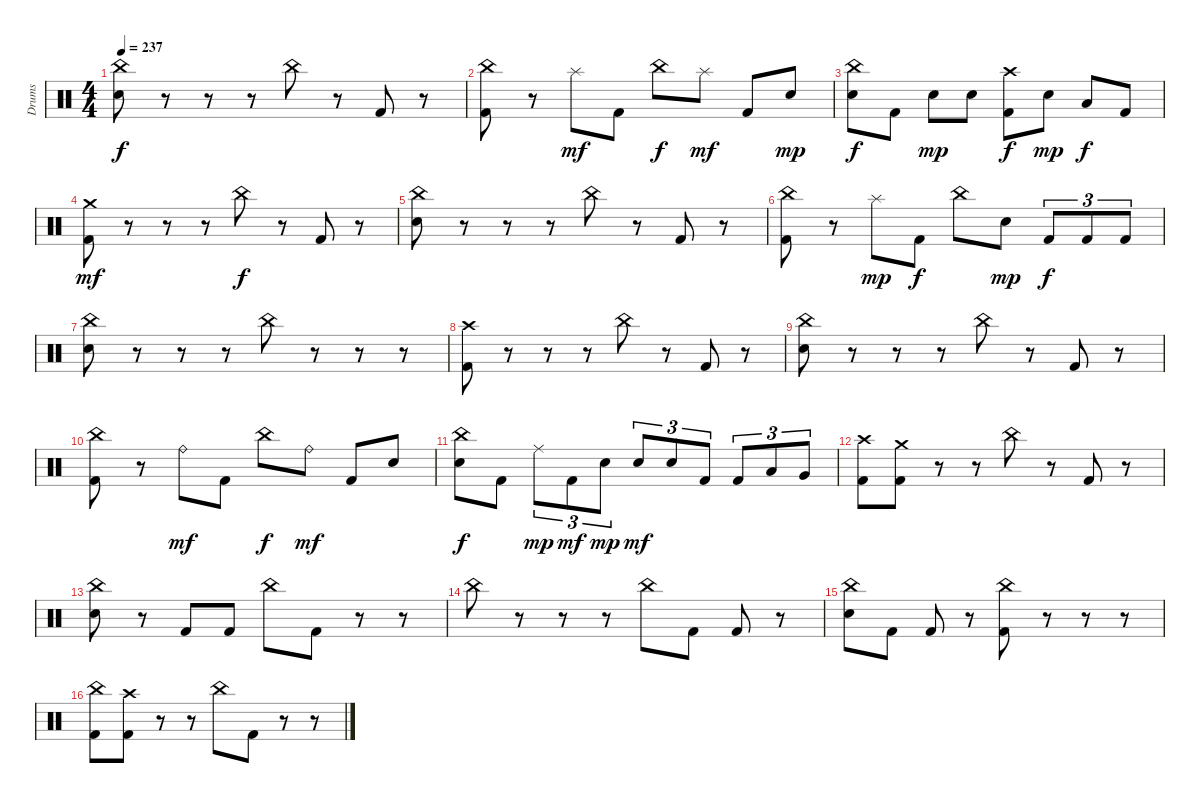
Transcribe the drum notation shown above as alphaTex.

\track ("Drums" "Drums") {instrument percussion}
\staff {score}
\articulation defaults
\ts (4 4)
\tempo 237
\clef neutral
\ks c
("China (hit)" "Electric Snare (hit)").8{dy f} r.8 r.8 r.8 "China (hit)".8 r.8 "Kick (hit) 2".8 r.8 |
("China (hit)" "Kick (hit) 2").8 r.8 "Splash (hit)".8{dy mf} "Kick (hit) 2".8 "China (hit)".8{dy f} "Splash (hit)".8{dy mf} "Kick (hit) 2".8 "Electric Snare (hit)".8{dy mp} |
("China (hit)" "Electric Snare (hit)").8{dy f} "Kick (hit) 2".8 "Electric Snare (hit)".8{dy mp} "Electric Snare (hit)".8 ("Crash high (hit)" "Kick (hit) 2").8{dy f} "Electric Snare (hit)".8{dy mp} "Low Tom (hit)".8{dy f} "Kick (hit) 2".8 |
("Crash medium (hit)" "Kick (hit) 2").8{dy mf} r.8 r.8 r.8 "China (hit)".8{dy f} r.8 "Kick (hit) 2".8 r.8 |
("China (hit)" "Electric Snare (hit)").8 r.8 r.8 r.8 "China (hit)".8 r.8 "Kick (hit) 2".8 r.8 |
("China (hit)" "Kick (hit) 2").8 r.8 "Splash (hit)".8{dy mp} "Kick (hit) 2".8{dy f} "China (hit)".8 "Electric Snare (hit)".8{dy mp} "Kick (hit) 2".8{tu (3 2) dy f} "Kick (hit) 2".8{tu (3 2)} "Kick (hit) 2".8{tu (3 2)} |
("China (hit)" "Electric Snare (hit)").8 r.8 r.8 r.8 "China (hit)".8 r.8 r.8 r.8 |
("Crash high (hit)" "Kick (hit) 2").8 r.8 r.8 r.8 "China (hit)".8 r.8 "Kick (hit) 2".8 r.8 |
("China (hit)" "Electric Snare (hit)").8 r.8 r.8 r.8 "China (hit)".8 r.8 "Kick (hit) 2".8 r.8 |
("China (hit)" "Kick (hit) 2").8 r.8 "Ride (bell)".8{dy mf} "Kick (hit) 2".8 "China (hit)".8{dy f} "Ride (bell)".8{dy mf} "Kick (hit) 2".8 "Electric Snare (hit)".8 |
("China (hit)" "Electric Snare (hit)").8{dy f} "Kick (hit) 2".8 "Ride (middle)".8{tu (3 2) dy mp} "Kick (hit) 2".8{tu (3 2) dy mf} "Electric Snare (hit)".8{tu (3 2) dy mp} "Electric Snare (hit)".8{tu (3 2) dy mf} "Electric Snare (hit)".8{tu (3 2)} "Kick (hit) 2".8{tu (3 2)} "Kick (hit) 2".8{tu (3 2)} "Low Tom (hit)".8{tu (3 2)} "Very Low Tom (hit)".8{tu (3 2)} |
("Crash high (hit)" "Kick (hit) 2").8 ("Crash medium (hit)" "Kick (hit) 2").8 r.8 r.8 "China (hit)".8 r.8 "Kick (hit) 2".8 r.8 |
("China (hit)" "Electric Snare (hit)").8 r.8 "Kick (hit) 2".8 "Kick (hit) 2".8 "China (hit)".8 "Kick (hit) 2".8 r.8 r.8 |
"China (hit)".8 r.8 r.8 r.8 "China (hit)".8 "Kick (hit) 2".8 "Kick (hit) 2".8 r.8 |
("China (hit)" "Electric Snare (hit)").8 "Kick (hit) 2".8 "Kick (hit) 2".8 r.8 ("China (hit)" "Kick (hit) 2").8 r.8 r.8 r.8 |
("China (hit)" "Kick (hit) 2").8 ("Crash high (hit)" "Kick (hit) 2").8 r.8 r.8 "China (hit)".8 "Kick (hit) 2".8 r.8 r.8
